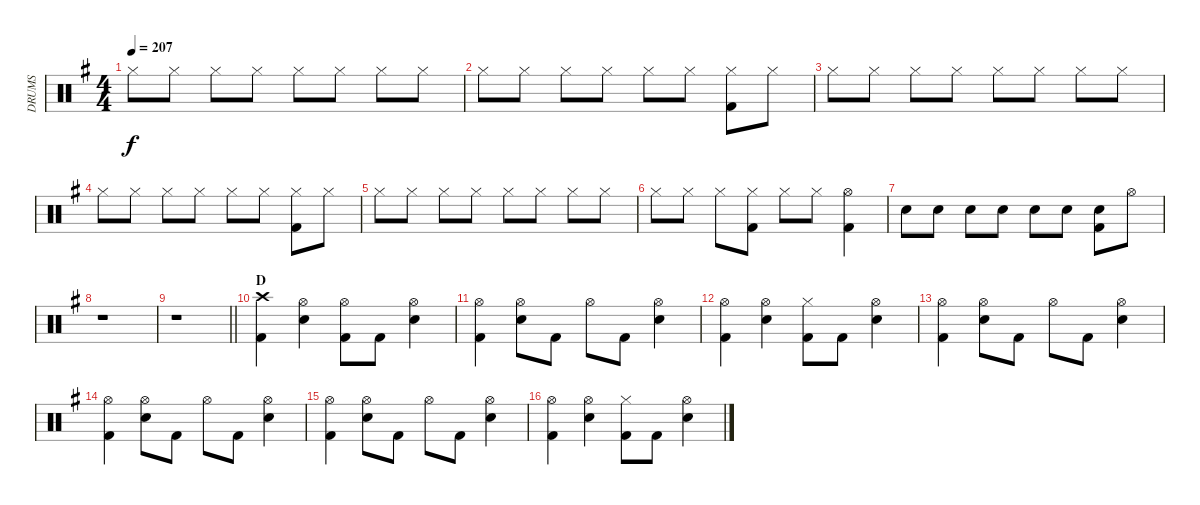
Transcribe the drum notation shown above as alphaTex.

\track ("DRUMS" "DRUMS") {instrument percussion}
\staff {score}
\articulation defaults
\ts (4 4)
\tempo 207
\clef neutral
\ks eminor "Hi-Hat (closed)".8{dy f} "Hi-Hat (closed)".8 "Hi-Hat (closed)".8 "Hi-Hat (closed)".8 "Hi-Hat (closed)".8 "Hi-Hat (closed)".8 "Hi-Hat (closed)".8 "Hi-Hat (closed)".8
|
"Hi-Hat (closed)".8 "Hi-Hat (closed)".8 "Hi-Hat (closed)".8 "Hi-Hat (closed)".8 "Hi-Hat (closed)".8 "Hi-Hat (closed)".8 ("Hi-Hat (closed)" "Kick (hit) 2").8 "Hi-Hat (closed)".8 |
"Hi-Hat (closed)".8 "Hi-Hat (closed)".8 "Hi-Hat (closed)".8 "Hi-Hat (closed)".8 "Hi-Hat (closed)".8 "Hi-Hat (closed)".8 "Hi-Hat (closed)".8 "Hi-Hat (closed)".8 |
"Hi-Hat (closed)".8 "Hi-Hat (closed)".8 "Hi-Hat (closed)".8 "Hi-Hat (closed)".8 "Hi-Hat (closed)".8 "Hi-Hat (closed)".8 ("Hi-Hat (closed)" "Kick (hit) 2").8 "Hi-Hat (closed)".8 |
"Hi-Hat (closed)".8 "Hi-Hat (closed)".8 "Hi-Hat (closed)".8 "Hi-Hat (closed)".8 "Hi-Hat (closed)".8 "Hi-Hat (closed)".8 "Hi-Hat (closed)".8 "Hi-Hat (closed)".8 |
"Hi-Hat (closed)".8 "Hi-Hat (closed)".8 "Hi-Hat (closed)".8 ("Hi-Hat (closed)" "Kick (hit) 2").8 "Hi-Hat (closed)".8 "Hi-Hat (closed)".8 ("Hi-Hat (open)" "Kick (hit) 2").4 |
"Snare (hit) 2".8 "Snare (hit) 2".8 "Snare (hit) 2".8 "Snare (hit) 2".8 "Snare (hit) 2".8 "Snare (hit) 2".8 ("Snare (hit) 2" "Kick (hit) 2").8 "Hi-Hat (open)".8 |
r.1 |
\barLineRight lightlight
r.1 |
\section ("" "D")
("Crash high (hit)" "Kick (hit) 2").4 ("Hi-Hat (open)" "Snare (hit) 2").4 ("Hi-Hat (open)" "Kick (hit) 2").8 "Kick (hit) 2".8 ("Hi-Hat (open)" "Snare (hit) 2").4 |
("Hi-Hat (open)" "Kick (hit) 2").4 ("Hi-Hat (open)" "Snare (hit) 2").8 "Kick (hit) 2".8 "Hi-Hat (open)".8 "Kick (hit) 2".8 ("Hi-Hat (open)" "Snare (hit) 2").4 |
("Hi-Hat (open)" "Kick (hit) 2").4 ("Hi-Hat (open)" "Snare (hit) 2").4 ("Hi-Hat (closed)" "Kick (hit) 2").8 "Kick (hit) 2".8 ("Hi-Hat (open)" "Snare (hit) 2").4 |
("Hi-Hat (open)" "Kick (hit) 2").4 ("Hi-Hat (open)" "Snare (hit) 2").8 "Kick (hit) 2".8 "Hi-Hat (open)".8 "Kick (hit) 2".8 ("Hi-Hat (open)" "Snare (hit) 2").4 |
("Hi-Hat (open)" "Kick (hit) 2").4 ("Hi-Hat (open)" "Snare (hit) 2").8 "Kick (hit) 2".8 "Hi-Hat (open)".8 "Kick (hit) 2".8 ("Hi-Hat (open)" "Snare (hit) 2").4 |
("Hi-Hat (open)" "Kick (hit) 2").4 ("Hi-Hat (open)" "Snare (hit) 2").8 "Kick (hit) 2".8 "Hi-Hat (open)".8 "Kick (hit) 2".8 ("Hi-Hat (open)" "Snare (hit) 2").4 |
("Hi-Hat (open)" "Kick (hit) 2").4 ("Hi-Hat (open)" "Snare (hit) 2").4 ("Hi-Hat (closed)" "Kick (hit) 2").8 "Kick (hit) 2".8 ("Hi-Hat (open)" "Snare (hit) 2").4
